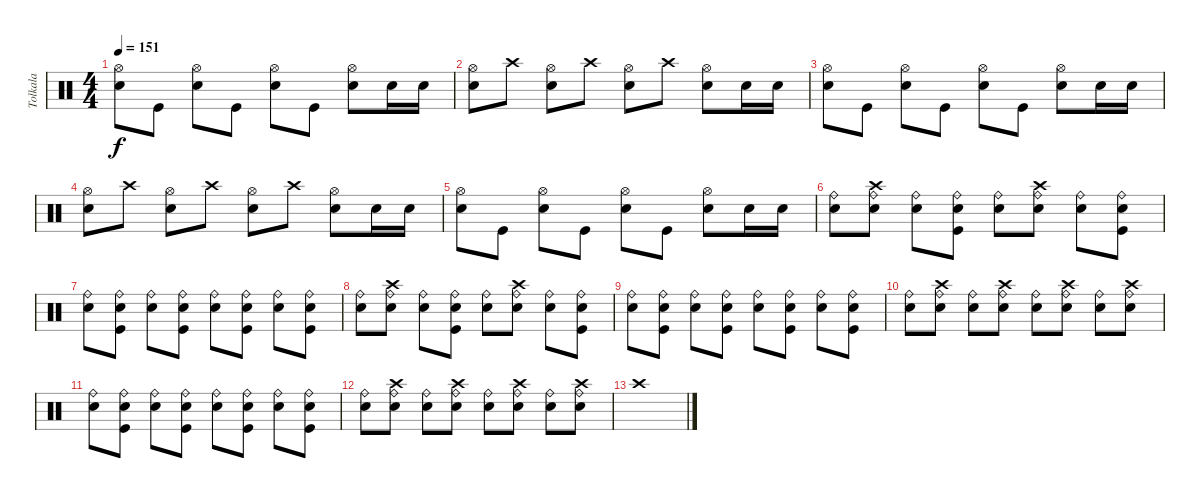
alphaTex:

\track ("Tolkala" "Tolkala") {instrument percussion}
\staff {score}
\articulation defaults
\ts (4 4)
\tempo 151
\clef neutral
\ks c
("Electric Snare (hit)" "Hi-Hat (open)").8{dy f} "Kick (hit)".8 ("Electric Snare (hit)" "Hi-Hat (open)").8 "Kick (hit)".8 ("Electric Snare (hit)" "Hi-Hat (open)").8 "Kick (hit)".8 ("Electric Snare (hit)" "Hi-Hat (open)").8 "Electric Snare (hit)".16 "Electric Snare (hit)".16 |
("Electric Snare (hit)" "Hi-Hat (open)").8 "Crash high (hit)".8 ("Electric Snare (hit)" "Hi-Hat (open)").8 "Crash high (hit)".8 ("Electric Snare (hit)" "Hi-Hat (open)").8 "Crash high (hit)".8 ("Electric Snare (hit)" "Hi-Hat (open)").8 "Electric Snare (hit)".16 "Electric Snare (hit)".16 |
("Electric Snare (hit)" "Hi-Hat (open)").8 "Kick (hit)".8 ("Electric Snare (hit)" "Hi-Hat (open)").8 "Kick (hit)".8 ("Electric Snare (hit)" "Hi-Hat (open)").8 "Kick (hit)".8 ("Electric Snare (hit)" "Hi-Hat (open)").8 "Electric Snare (hit)".16 "Electric Snare (hit)".16 |
("Electric Snare (hit)" "Hi-Hat (open)").8 "Crash high (hit)".8 ("Electric Snare (hit)" "Hi-Hat (open)").8 "Crash high (hit)".8 ("Electric Snare (hit)" "Hi-Hat (open)").8 "Crash high (hit)".8 ("Electric Snare (hit)" "Hi-Hat (open)").8 "Electric Snare (hit)".16 "Electric Snare (hit)".16 |
("Electric Snare (hit)" "Hi-Hat (open)").8 "Kick (hit)".8 ("Electric Snare (hit)" "Hi-Hat (open)").8 "Kick (hit)".8 ("Electric Snare (hit)" "Hi-Hat (open)").8 "Kick (hit)".8 ("Electric Snare (hit)" "Hi-Hat (open)").8 "Electric Snare (hit)".16 "Electric Snare (hit)".16 |
("Electric Snare (hit)" "Ride (bell)").8 ("Crash high (hit)" "Electric Snare (hit)" "Ride (bell)").8 ("Electric Snare (hit)" "Ride (bell)").8 ("Kick (hit)" "Electric Snare (hit)" "Ride (bell)").8 ("Electric Snare (hit)" "Ride (bell)").8 ("Crash high (hit)" "Electric Snare (hit)" "Ride (bell)").8 ("Electric Snare (hit)" "Ride (bell)").8 ("Kick (hit)" "Electric Snare (hit)" "Ride (bell)").8 |
("Electric Snare (hit)" "Ride (bell)").8 ("Kick (hit)" "Electric Snare (hit)" "Ride (bell)").8 ("Electric Snare (hit)" "Ride (bell)").8 ("Kick (hit)" "Electric Snare (hit)" "Ride (bell)").8 ("Electric Snare (hit)" "Ride (bell)").8 ("Kick (hit)" "Electric Snare (hit)" "Ride (bell)").8 ("Electric Snare (hit)" "Ride (bell)").8 ("Kick (hit)" "Electric Snare (hit)" "Ride (bell)").8 |
("Electric Snare (hit)" "Ride (bell)").8 ("Crash high (hit)" "Electric Snare (hit)" "Ride (bell)").8 ("Electric Snare (hit)" "Ride (bell)").8 ("Kick (hit)" "Electric Snare (hit)" "Ride (bell)").8 ("Electric Snare (hit)" "Ride (bell)").8 ("Crash high (hit)" "Electric Snare (hit)" "Ride (bell)").8 ("Electric Snare (hit)" "Ride (bell)").8 ("Kick (hit)" "Electric Snare (hit)" "Ride (bell)").8 |
("Electric Snare (hit)" "Ride (bell)").8 ("Kick (hit)" "Electric Snare (hit)" "Ride (bell)").8 ("Electric Snare (hit)" "Ride (bell)").8 ("Kick (hit)" "Electric Snare (hit)" "Ride (bell)").8 ("Electric Snare (hit)" "Ride (bell)").8 ("Kick (hit)" "Electric Snare (hit)" "Ride (bell)").8 ("Electric Snare (hit)" "Ride (bell)").8 ("Kick (hit)" "Electric Snare (hit)" "Ride (bell)").8 |
("Electric Snare (hit)" "Ride (bell)").8 ("Crash high (hit)" "Electric Snare (hit)" "Ride (bell)").8 ("Electric Snare (hit)" "Ride (bell)").8 ("Crash high (hit)" "Electric Snare (hit)" "Ride (bell)").8 ("Electric Snare (hit)" "Ride (bell)").8 ("Crash high (hit)" "Electric Snare (hit)" "Ride (bell)").8 ("Electric Snare (hit)" "Ride (bell)").8 ("Crash high (hit)" "Electric Snare (hit)" "Ride (bell)").8 |
("Electric Snare (hit)" "Ride (bell)").8 ("Kick (hit)" "Electric Snare (hit)" "Ride (bell)").8 ("Electric Snare (hit)" "Ride (bell)").8 ("Kick (hit)" "Electric Snare (hit)" "Ride (bell)").8 ("Electric Snare (hit)" "Ride (bell)").8 ("Kick (hit)" "Electric Snare (hit)" "Ride (bell)").8 ("Electric Snare (hit)" "Ride (bell)").8 ("Kick (hit)" "Electric Snare (hit)" "Ride (bell)").8 |
("Electric Snare (hit)" "Ride (bell)").8 ("Crash high (hit)" "Electric Snare (hit)" "Ride (bell)").8 ("Electric Snare (hit)" "Ride (bell)").8 ("Crash high (hit)" "Electric Snare (hit)" "Ride (bell)").8 ("Electric Snare (hit)" "Ride (bell)").8 ("Crash high (hit)" "Electric Snare (hit)" "Ride (bell)").8 ("Electric Snare (hit)" "Ride (bell)").8 ("Crash high (hit)" "Electric Snare (hit)" "Ride (bell)").8 |
"Crash high (hit)".1
